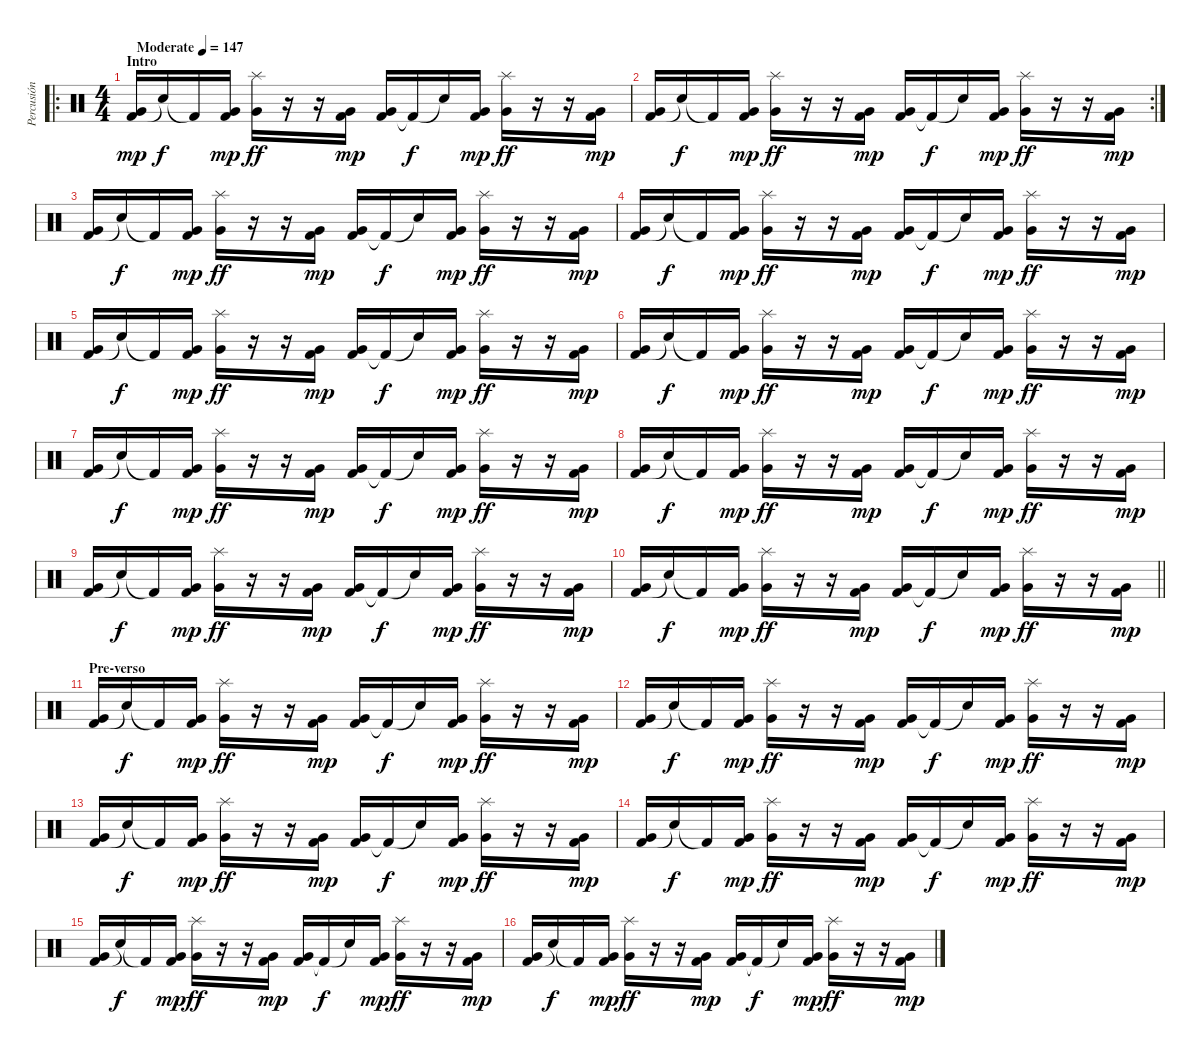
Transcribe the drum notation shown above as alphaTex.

\track ("Percusión" "Percusión") {instrument percussion}
\staff {score}
\articulation defaults
\ro
\ts (4 4)
\section ("" "Intro")
\tempo (147 "Moderate")
\clef neutral
\ks c
("Kick (hit) 2" "Very Low Tom (hit)").16{dy mp} "Snare (hit)"{t}.16{dy f} "Kick (hit) 2"{t}.16 ("Kick (hit) 2" "Very Low Tom (hit)").16{dy mp} ("Very Low Tom (hit)" "Splash (hit)").16{dy ff} r.16 r.16 ("Kick (hit) 2" "Very Low Tom (hit)").16{dy mp} ("Kick (hit) 2" "Very Low Tom (hit)").16 "Kick (hit) 2"{t}.16{dy f} "Snare (hit)"{t}.16 ("Kick (hit) 2" "Very Low Tom (hit)").16{dy mp} ("Very Low Tom (hit)" "Splash (hit)").16{dy ff} r.16 r.16 ("Kick (hit) 2" "Very Low Tom (hit)").16{dy mp} |
\rc 2
("Kick (hit) 2" "Very Low Tom (hit)").16 "Snare (hit)"{t}.16{dy f} "Kick (hit) 2"{t}.16 ("Kick (hit) 2" "Very Low Tom (hit)").16{dy mp} ("Very Low Tom (hit)" "Splash (hit)").16{dy ff} r.16 r.16 ("Kick (hit) 2" "Very Low Tom (hit)").16{dy mp} ("Kick (hit) 2" "Very Low Tom (hit)").16 "Kick (hit) 2"{t}.16{dy f} "Snare (hit)"{t}.16 ("Kick (hit) 2" "Very Low Tom (hit)").16{dy mp} ("Very Low Tom (hit)" "Splash (hit)").16{dy ff} r.16 r.16 ("Kick (hit) 2" "Very Low Tom (hit)").16{dy mp} |
("Kick (hit) 2" "Very Low Tom (hit)").16 "Snare (hit)"{t}.16{dy f} "Kick (hit) 2"{t}.16 ("Kick (hit) 2" "Very Low Tom (hit)").16{dy mp} ("Very Low Tom (hit)" "Splash (hit)").16{dy ff} r.16 r.16 ("Kick (hit) 2" "Very Low Tom (hit)").16{dy mp} ("Kick (hit) 2" "Very Low Tom (hit)").16 "Kick (hit) 2"{t}.16{dy f} "Snare (hit)"{t}.16 ("Kick (hit) 2" "Very Low Tom (hit)").16{dy mp} ("Very Low Tom (hit)" "Splash (hit)").16{dy ff} r.16 r.16 ("Kick (hit) 2" "Very Low Tom (hit)").16{dy mp} |
("Kick (hit) 2" "Very Low Tom (hit)").16 "Snare (hit)"{t}.16{dy f} "Kick (hit) 2"{t}.16 ("Kick (hit) 2" "Very Low Tom (hit)").16{dy mp} ("Very Low Tom (hit)" "Splash (hit)").16{dy ff} r.16 r.16 ("Kick (hit) 2" "Very Low Tom (hit)").16{dy mp} ("Kick (hit) 2" "Very Low Tom (hit)").16 "Kick (hit) 2"{t}.16{dy f} "Snare (hit)"{t}.16 ("Kick (hit) 2" "Very Low Tom (hit)").16{dy mp} ("Very Low Tom (hit)" "Splash (hit)").16{dy ff} r.16 r.16 ("Kick (hit) 2" "Very Low Tom (hit)").16{dy mp} |
("Kick (hit) 2" "Very Low Tom (hit)").16 "Snare (hit)"{t}.16{dy f} "Kick (hit) 2"{t}.16 ("Kick (hit) 2" "Very Low Tom (hit)").16{dy mp} ("Very Low Tom (hit)" "Splash (hit)").16{dy ff} r.16 r.16 ("Kick (hit) 2" "Very Low Tom (hit)").16{dy mp} ("Kick (hit) 2" "Very Low Tom (hit)").16 "Kick (hit) 2"{t}.16{dy f} "Snare (hit)"{t}.16 ("Kick (hit) 2" "Very Low Tom (hit)").16{dy mp} ("Very Low Tom (hit)" "Splash (hit)").16{dy ff} r.16 r.16 ("Kick (hit) 2" "Very Low Tom (hit)").16{dy mp} |
("Kick (hit) 2" "Very Low Tom (hit)").16 "Snare (hit)"{t}.16{dy f} "Kick (hit) 2"{t}.16 ("Kick (hit) 2" "Very Low Tom (hit)").16{dy mp} ("Very Low Tom (hit)" "Splash (hit)").16{dy ff} r.16 r.16 ("Kick (hit) 2" "Very Low Tom (hit)").16{dy mp} ("Kick (hit) 2" "Very Low Tom (hit)").16 "Kick (hit) 2"{t}.16{dy f} "Snare (hit)"{t}.16 ("Kick (hit) 2" "Very Low Tom (hit)").16{dy mp} ("Very Low Tom (hit)" "Splash (hit)").16{dy ff} r.16 r.16 ("Kick (hit) 2" "Very Low Tom (hit)").16{dy mp} |
("Kick (hit) 2" "Very Low Tom (hit)").16 "Snare (hit)"{t}.16{dy f} "Kick (hit) 2"{t}.16 ("Kick (hit) 2" "Very Low Tom (hit)").16{dy mp} ("Very Low Tom (hit)" "Splash (hit)").16{dy ff} r.16 r.16 ("Kick (hit) 2" "Very Low Tom (hit)").16{dy mp} ("Kick (hit) 2" "Very Low Tom (hit)").16 "Kick (hit) 2"{t}.16{dy f} "Snare (hit)"{t}.16 ("Kick (hit) 2" "Very Low Tom (hit)").16{dy mp} ("Very Low Tom (hit)" "Splash (hit)").16{dy ff} r.16 r.16 ("Kick (hit) 2" "Very Low Tom (hit)").16{dy mp} |
("Kick (hit) 2" "Very Low Tom (hit)").16 "Snare (hit)"{t}.16{dy f} "Kick (hit) 2"{t}.16 ("Kick (hit) 2" "Very Low Tom (hit)").16{dy mp} ("Very Low Tom (hit)" "Splash (hit)").16{dy ff} r.16 r.16 ("Kick (hit) 2" "Very Low Tom (hit)").16{dy mp} ("Kick (hit) 2" "Very Low Tom (hit)").16 "Kick (hit) 2"{t}.16{dy f} "Snare (hit)"{t}.16 ("Kick (hit) 2" "Very Low Tom (hit)").16{dy mp} ("Very Low Tom (hit)" "Splash (hit)").16{dy ff} r.16 r.16 ("Kick (hit) 2" "Very Low Tom (hit)").16{dy mp} |
("Kick (hit) 2" "Very Low Tom (hit)").16 "Snare (hit)"{t}.16{dy f} "Kick (hit) 2"{t}.16 ("Kick (hit) 2" "Very Low Tom (hit)").16{dy mp} ("Very Low Tom (hit)" "Splash (hit)").16{dy ff} r.16 r.16 ("Kick (hit) 2" "Very Low Tom (hit)").16{dy mp} ("Kick (hit) 2" "Very Low Tom (hit)").16 "Kick (hit) 2"{t}.16{dy f} "Snare (hit)"{t}.16 ("Kick (hit) 2" "Very Low Tom (hit)").16{dy mp} ("Very Low Tom (hit)" "Splash (hit)").16{dy ff} r.16 r.16 ("Kick (hit) 2" "Very Low Tom (hit)").16{dy mp} |
\barLineRight lightlight
("Kick (hit) 2" "Very Low Tom (hit)").16 "Snare (hit)"{t}.16{dy f} "Kick (hit) 2"{t}.16 ("Kick (hit) 2" "Very Low Tom (hit)").16{dy mp} ("Very Low Tom (hit)" "Splash (hit)").16{dy ff} r.16 r.16 ("Kick (hit) 2" "Very Low Tom (hit)").16{dy mp} ("Kick (hit) 2" "Very Low Tom (hit)").16 "Kick (hit) 2"{t}.16{dy f} "Snare (hit)"{t}.16 ("Kick (hit) 2" "Very Low Tom (hit)").16{dy mp} ("Very Low Tom (hit)" "Splash (hit)").16{dy ff} r.16 r.16 ("Kick (hit) 2" "Very Low Tom (hit)").16{dy mp} |
\section ("" "Pre-verso")
("Kick (hit) 2" "Very Low Tom (hit)").16 "Snare (hit)"{t}.16{dy f} "Kick (hit) 2"{t}.16 ("Kick (hit) 2" "Very Low Tom (hit)").16{dy mp} ("Very Low Tom (hit)" "Splash (hit)").16{dy ff} r.16 r.16 ("Kick (hit) 2" "Very Low Tom (hit)").16{dy mp} ("Kick (hit) 2" "Very Low Tom (hit)").16 "Kick (hit) 2"{t}.16{dy f} "Snare (hit)"{t}.16 ("Kick (hit) 2" "Very Low Tom (hit)").16{dy mp} ("Very Low Tom (hit)" "Splash (hit)").16{dy ff} r.16 r.16 ("Kick (hit) 2" "Very Low Tom (hit)").16{dy mp} |
("Kick (hit) 2" "Very Low Tom (hit)").16 "Snare (hit)"{t}.16{dy f} "Kick (hit) 2"{t}.16 ("Kick (hit) 2" "Very Low Tom (hit)").16{dy mp} ("Very Low Tom (hit)" "Splash (hit)").16{dy ff} r.16 r.16 ("Kick (hit) 2" "Very Low Tom (hit)").16{dy mp} ("Kick (hit) 2" "Very Low Tom (hit)").16 "Kick (hit) 2"{t}.16{dy f} "Snare (hit)"{t}.16 ("Kick (hit) 2" "Very Low Tom (hit)").16{dy mp} ("Very Low Tom (hit)" "Splash (hit)").16{dy ff} r.16 r.16 ("Kick (hit) 2" "Very Low Tom (hit)").16{dy mp} |
("Kick (hit) 2" "Very Low Tom (hit)").16 "Snare (hit)"{t}.16{dy f} "Kick (hit) 2"{t}.16 ("Kick (hit) 2" "Very Low Tom (hit)").16{dy mp} ("Very Low Tom (hit)" "Splash (hit)").16{dy ff} r.16 r.16 ("Kick (hit) 2" "Very Low Tom (hit)").16{dy mp} ("Kick (hit) 2" "Very Low Tom (hit)").16 "Kick (hit) 2"{t}.16{dy f} "Snare (hit)"{t}.16 ("Kick (hit) 2" "Very Low Tom (hit)").16{dy mp} ("Very Low Tom (hit)" "Splash (hit)").16{dy ff} r.16 r.16 ("Kick (hit) 2" "Very Low Tom (hit)").16{dy mp} |
("Kick (hit) 2" "Very Low Tom (hit)").16 "Snare (hit)"{t}.16{dy f} "Kick (hit) 2"{t}.16 ("Kick (hit) 2" "Very Low Tom (hit)").16{dy mp} ("Very Low Tom (hit)" "Splash (hit)").16{dy ff} r.16 r.16 ("Kick (hit) 2" "Very Low Tom (hit)").16{dy mp} ("Kick (hit) 2" "Very Low Tom (hit)").16 "Kick (hit) 2"{t}.16{dy f} "Snare (hit)"{t}.16 ("Kick (hit) 2" "Very Low Tom (hit)").16{dy mp} ("Very Low Tom (hit)" "Splash (hit)").16{dy ff} r.16 r.16 ("Kick (hit) 2" "Very Low Tom (hit)").16{dy mp} |
("Kick (hit) 2" "Very Low Tom (hit)").16 "Snare (hit)"{t}.16{dy f} "Kick (hit) 2"{t}.16 ("Kick (hit) 2" "Very Low Tom (hit)").16{dy mp} ("Very Low Tom (hit)" "Splash (hit)").16{dy ff} r.16 r.16 ("Kick (hit) 2" "Very Low Tom (hit)").16{dy mp} ("Kick (hit) 2" "Very Low Tom (hit)").16 "Kick (hit) 2"{t}.16{dy f} "Snare (hit)"{t}.16 ("Kick (hit) 2" "Very Low Tom (hit)").16{dy mp} ("Very Low Tom (hit)" "Splash (hit)").16{dy ff} r.16 r.16 ("Kick (hit) 2" "Very Low Tom (hit)").16{dy mp} |
("Kick (hit) 2" "Very Low Tom (hit)").16 "Snare (hit)"{t}.16{dy f} "Kick (hit) 2"{t}.16 ("Kick (hit) 2" "Very Low Tom (hit)").16{dy mp} ("Very Low Tom (hit)" "Splash (hit)").16{dy ff} r.16 r.16 ("Kick (hit) 2" "Very Low Tom (hit)").16{dy mp} ("Kick (hit) 2" "Very Low Tom (hit)").16 "Kick (hit) 2"{t}.16{dy f} "Snare (hit)"{t}.16 ("Kick (hit) 2" "Very Low Tom (hit)").16{dy mp} ("Very Low Tom (hit)" "Splash (hit)").16{dy ff} r.16 r.16 ("Kick (hit) 2" "Very Low Tom (hit)").16{dy mp}
